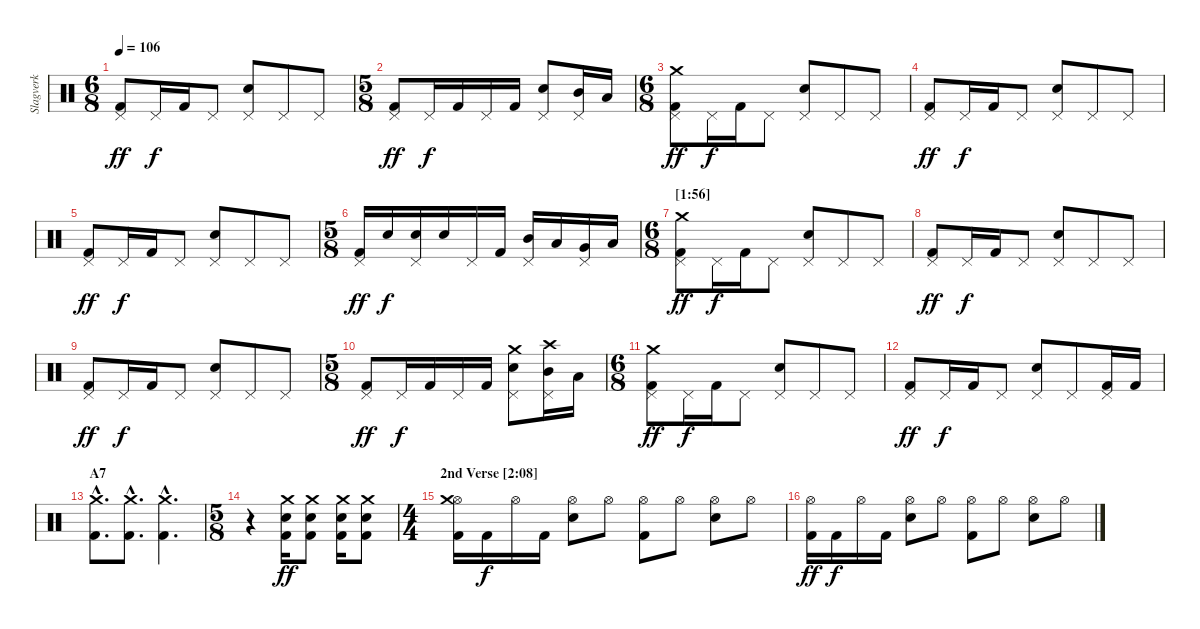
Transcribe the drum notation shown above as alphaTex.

\track ("Slagverk" "Slagverk") {instrument percussion}
\staff {score}
\articulation defaults
\ts (6 8)
\tempo 106
\clef neutral
\ks c
("Pedal Hi-Hat (hit)" "Kick (hit) 2").8{dy ff} "Pedal Hi-Hat (hit)".16{dy f} "Kick (hit) 2".16 "Pedal Hi-Hat (hit)".8 ("Pedal Hi-Hat (hit)" "Electric Snare (hit)").8 "Pedal Hi-Hat (hit)".8 "Pedal Hi-Hat (hit)".8 |
\ts (5 8)
("Pedal Hi-Hat (hit)" "Kick (hit) 2").8{dy ff} "Pedal Hi-Hat (hit)".16{dy f} "Kick (hit) 2".16 "Pedal Hi-Hat (hit)".16 "Kick (hit) 2".16 ("Pedal Hi-Hat (hit)" "Electric Snare (hit)").8 ("Pedal Hi-Hat (hit)" "Mid Tom (hit)").16 "Low Tom (hit)".16 |
\ts (6 8)
\section ("" "")
("Pedal Hi-Hat (hit)" "Crash medium (hit)" "Kick (hit) 2").8{dy ff} "Pedal Hi-Hat (hit)".16{dy f} "Kick (hit) 2".16 "Pedal Hi-Hat (hit)".8 ("Pedal Hi-Hat (hit)" "Electric Snare (hit)").8 "Pedal Hi-Hat (hit)".8 "Pedal Hi-Hat (hit)".8 |
("Pedal Hi-Hat (hit)" "Kick (hit) 2").8{dy ff} "Pedal Hi-Hat (hit)".16{dy f} "Kick (hit) 2".16 "Pedal Hi-Hat (hit)".8 ("Pedal Hi-Hat (hit)" "Electric Snare (hit)").8 "Pedal Hi-Hat (hit)".8 "Pedal Hi-Hat (hit)".8 |
("Pedal Hi-Hat (hit)" "Kick (hit) 2").8{dy ff} "Pedal Hi-Hat (hit)".16{dy f} "Kick (hit) 2".16 "Pedal Hi-Hat (hit)".8 ("Pedal Hi-Hat (hit)" "Electric Snare (hit)").8 "Pedal Hi-Hat (hit)".8 "Pedal Hi-Hat (hit)".8 |
\ts (5 8)
("Pedal Hi-Hat (hit)" "Kick (hit) 2").16{dy ff} "Electric Snare (hit)".16{dy f} ("Pedal Hi-Hat (hit)" "Electric Snare (hit)").16 "Electric Snare (hit)".16 "Pedal Hi-Hat (hit)".16 "Kick (hit) 2".16 ("Pedal Hi-Hat (hit)" "Mid Tom (hit)").16 "Low Tom (hit)".16 ("Pedal Hi-Hat (hit)" "Very Low Tom (hit)").16 "Low Floor Tom (hit)".16 |
\ts (6 8)
\section ("" "[1:56]")
("Pedal Hi-Hat (hit)" "Crash medium (hit)" "Kick (hit) 2").8{dy ff} "Pedal Hi-Hat (hit)".16{dy f} "Kick (hit) 2".16 "Pedal Hi-Hat (hit)".8 ("Pedal Hi-Hat (hit)" "Electric Snare (hit)").8 "Pedal Hi-Hat (hit)".8 "Pedal Hi-Hat (hit)".8 |
("Pedal Hi-Hat (hit)" "Kick (hit) 2").8{dy ff} "Pedal Hi-Hat (hit)".16{dy f} "Kick (hit) 2".16 "Pedal Hi-Hat (hit)".8 ("Pedal Hi-Hat (hit)" "Electric Snare (hit)").8 "Pedal Hi-Hat (hit)".8 "Pedal Hi-Hat (hit)".8 |
("Pedal Hi-Hat (hit)" "Kick (hit) 2").8{dy ff} "Pedal Hi-Hat (hit)".16{dy f} "Kick (hit) 2".16 "Pedal Hi-Hat (hit)".8 ("Pedal Hi-Hat (hit)" "Electric Snare (hit)").8 "Pedal Hi-Hat (hit)".8 "Pedal Hi-Hat (hit)".8 |
\ts (5 8)
("Pedal Hi-Hat (hit)" "Kick (hit) 2").8{dy ff} "Pedal Hi-Hat (hit)".16{dy f} "Kick (hit) 2".16 "Pedal Hi-Hat (hit)".16 "Kick (hit) 2".16 ("Pedal Hi-Hat (hit)" "Crash medium (hit)" "Electric Snare (hit)").8 ("Pedal Hi-Hat (hit)" "Crash high (hit)" "Mid Tom (hit)").16 "Low Tom (hit)".16 |
\ts (6 8)
\section ("" "")
("Pedal Hi-Hat (hit)" "Crash medium (hit)" "Kick (hit) 2").8{dy ff} "Pedal Hi-Hat (hit)".16{dy f} "Kick (hit) 2".16 "Pedal Hi-Hat (hit)".8 ("Pedal Hi-Hat (hit)" "Electric Snare (hit)").8 "Pedal Hi-Hat (hit)".8 "Pedal Hi-Hat (hit)".8 |
("Pedal Hi-Hat (hit)" "Kick (hit) 2").8{dy ff} "Pedal Hi-Hat (hit)".16{dy f} "Kick (hit) 2".16 "Pedal Hi-Hat (hit)".8 ("Pedal Hi-Hat (hit)" "Electric Snare (hit)").8 "Pedal Hi-Hat (hit)".8 ("Pedal Hi-Hat (hit)" "Kick (hit) 2").16 "Kick (hit) 2".16 |
\section ("" "A7")
("Crash medium (hit)"{hac} "Kick (hit) 2"{hac}).8{d} ("Crash medium (hit)"{hac} "Kick (hit) 2"{hac}).8{d} ("Crash medium (hit)"{hac} "Kick (hit) 2"{hac}).4{d} |
\ts (5 8)
r.4 ("Crash medium (hit)" "Electric Snare (hit)" "Kick (hit) 2").16{dy ff} ("Crash medium (hit)" "Electric Snare (hit)" "Kick (hit) 2").8 ("Crash medium (hit)" "Electric Snare (hit)" "Kick (hit) 2").16 ("Crash medium (hit)" "Electric Snare (hit)" "Kick (hit) 2").8 |
\ts (4 4)
\section ("" "2nd Verse [2:08]")
("Hi-Hat (open)" "Crash medium (hit)" "Kick (hit) 2").16 "Kick (hit) 2".16{dy f} "Hi-Hat (open)".16 "Kick (hit) 2".16 ("Hi-Hat (open)" "Electric Snare (hit)").8 "Hi-Hat (open)".8 ("Hi-Hat (open)" "Kick (hit) 2").8 "Hi-Hat (open)".8 ("Hi-Hat (open)" "Electric Snare (hit)").8 "Hi-Hat (open)".8 |
("Hi-Hat (open)" "Kick (hit) 2").16{dy ff} "Kick (hit) 2".16{dy f} "Hi-Hat (open)".16 "Kick (hit) 2".16 ("Hi-Hat (open)" "Electric Snare (hit)").8 "Hi-Hat (open)".8 ("Hi-Hat (open)" "Kick (hit) 2").8 "Hi-Hat (open)".8 ("Hi-Hat (open)" "Electric Snare (hit)").8 "Hi-Hat (open)".8
